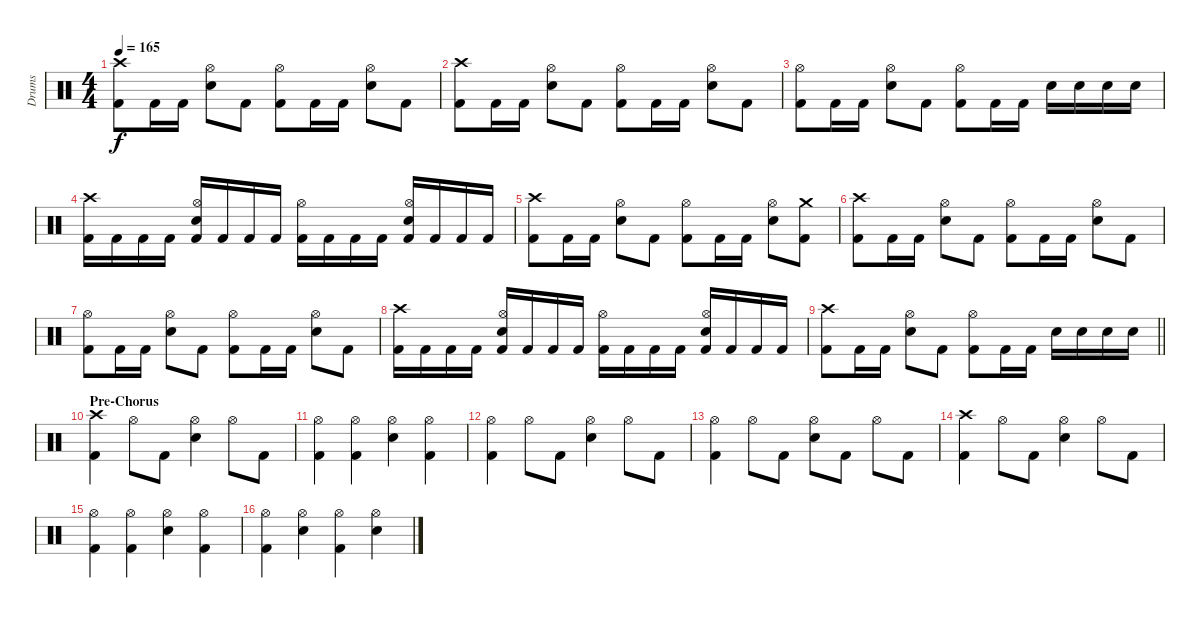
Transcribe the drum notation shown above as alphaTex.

\track ("Drums" "Drums") {instrument percussion}
\staff {score}
\articulation defaults
\ts (4 4)
\tempo 165
\clef neutral
\ks c
("Crash high (hit)" "Kick (hit) 2").8{dy f} "Kick (hit) 2".16 "Kick (hit) 2".16 ("Hi-Hat (open)" "Snare (hit) 2").8 "Kick (hit) 2".8 ("Hi-Hat (open)" "Kick (hit) 2").8 "Kick (hit) 2".16 "Kick (hit) 2".16 ("Hi-Hat (open)" "Snare (hit) 2").8 "Kick (hit) 2".8 |
("Crash high (hit)" "Kick (hit) 2").8 "Kick (hit) 2".16 "Kick (hit) 2".16 ("Hi-Hat (open)" "Snare (hit) 2").8 "Kick (hit) 2".8 ("Hi-Hat (open)" "Kick (hit) 2").8 "Kick (hit) 2".16 "Kick (hit) 2".16 ("Hi-Hat (open)" "Snare (hit) 2").8 "Kick (hit) 2".8 |
("Hi-Hat (open)" "Kick (hit) 2").8 "Kick (hit) 2".16 "Kick (hit) 2".16 ("Hi-Hat (open)" "Snare (hit) 2").8 "Kick (hit) 2".8 ("Hi-Hat (open)" "Kick (hit) 2").8 "Kick (hit) 2".16 "Kick (hit) 2".16 "Snare (hit) 2".16 "Snare (hit) 2".16 "Snare (hit) 2".16 "Snare (hit) 2".16 |
("Crash high (hit)" "Kick (hit) 2").16 "Kick (hit) 2".16 "Kick (hit) 2".16 "Kick (hit) 2".16 ("Hi-Hat (open)" "Snare (hit) 2" "Kick (hit) 2").16 "Kick (hit) 2".16 "Kick (hit) 2".16 "Kick (hit) 2".16 ("Hi-Hat (open)" "Kick (hit) 2").16 "Kick (hit) 2".16 "Kick (hit) 2".16 "Kick (hit) 2".16 ("Hi-Hat (open)" "Snare (hit) 2" "Kick (hit) 2").16 "Kick (hit) 2".16 "Kick (hit) 2".16 "Kick (hit) 2".16 |
("Crash high (hit)" "Kick (hit) 2").8 "Kick (hit) 2".16 "Kick (hit) 2".16 ("Hi-Hat (open)" "Snare (hit) 2").8 "Kick (hit) 2".8 ("Hi-Hat (open)" "Kick (hit) 2").8 "Kick (hit) 2".16 "Kick (hit) 2".16 ("Hi-Hat (open)" "Snare (hit) 2").8 ("Crash medium (hit)" "Kick (hit) 2").8 |
("Crash high (hit)" "Kick (hit) 2").8 "Kick (hit) 2".16 "Kick (hit) 2".16 ("Hi-Hat (open)" "Snare (hit) 2").8 "Kick (hit) 2".8 ("Hi-Hat (open)" "Kick (hit) 2").8 "Kick (hit) 2".16 "Kick (hit) 2".16 ("Hi-Hat (open)" "Snare (hit) 2").8 "Kick (hit) 2".8 |
("Hi-Hat (open)" "Kick (hit) 2").8 "Kick (hit) 2".16 "Kick (hit) 2".16 ("Hi-Hat (open)" "Snare (hit) 2").8 "Kick (hit) 2".8 ("Hi-Hat (open)" "Kick (hit) 2").8 "Kick (hit) 2".16 "Kick (hit) 2".16 ("Hi-Hat (open)" "Snare (hit) 2").8 "Kick (hit) 2".8 |
("Crash high (hit)" "Kick (hit) 2").16 "Kick (hit) 2".16 "Kick (hit) 2".16 "Kick (hit) 2".16 ("Hi-Hat (open)" "Snare (hit) 2" "Kick (hit) 2").16 "Kick (hit) 2".16 "Kick (hit) 2".16 "Kick (hit) 2".16 ("Hi-Hat (open)" "Kick (hit) 2").16 "Kick (hit) 2".16 "Kick (hit) 2".16 "Kick (hit) 2".16 ("Hi-Hat (open)" "Snare (hit) 2" "Kick (hit) 2").16 "Kick (hit) 2".16 "Kick (hit) 2".16 "Kick (hit) 2".16 |
\barLineRight lightlight
("Crash high (hit)" "Kick (hit) 2").8 "Kick (hit) 2".16 "Kick (hit) 2".16 ("Hi-Hat (open)" "Snare (hit) 2").8 "Kick (hit) 2".8 ("Hi-Hat (open)" "Kick (hit) 2").8 "Kick (hit) 2".16 "Kick (hit) 2".16 "Snare (hit) 2".16 "Snare (hit) 2".16 "Snare (hit) 2".16 "Snare (hit) 2".16 |
\section ("" "Pre-Chorus")
("Crash high (hit)" "Kick (hit) 2").4 "Hi-Hat (open)".8 "Kick (hit) 2".8 ("Hi-Hat (open)" "Snare (hit) 2").4 "Hi-Hat (open)".8 "Kick (hit) 2".8 |
("Hi-Hat (open)" "Kick (hit) 2").4 ("Hi-Hat (open)" "Kick (hit) 2").4 ("Hi-Hat (open)" "Snare (hit) 2").4 ("Hi-Hat (open)" "Kick (hit) 2").4 |
("Hi-Hat (open)" "Kick (hit) 2").4 "Hi-Hat (open)".8 "Kick (hit) 2".8 ("Hi-Hat (open)" "Snare (hit) 2").4 "Hi-Hat (open)".8 "Kick (hit) 2".8 |
("Hi-Hat (open)" "Kick (hit) 2").4 "Hi-Hat (open)".8 "Kick (hit) 2".8 ("Hi-Hat (open)" "Snare (hit) 2").8 "Kick (hit) 2".8 "Hi-Hat (open)".8 "Kick (hit) 2".8 |
("Crash high (hit)" "Kick (hit) 2").4 "Hi-Hat (open)".8 "Kick (hit) 2".8 ("Hi-Hat (open)" "Snare (hit) 2").4 "Hi-Hat (open)".8 "Kick (hit) 2".8 |
("Hi-Hat (open)" "Kick (hit) 2").4 ("Hi-Hat (open)" "Kick (hit) 2").4 ("Hi-Hat (open)" "Snare (hit) 2").4 ("Hi-Hat (open)" "Kick (hit) 2").4 |
("Hi-Hat (open)" "Kick (hit) 2").4 ("Hi-Hat (open)" "Snare (hit) 2").4 ("Hi-Hat (open)" "Kick (hit) 2").4 ("Hi-Hat (open)" "Snare (hit) 2").4
